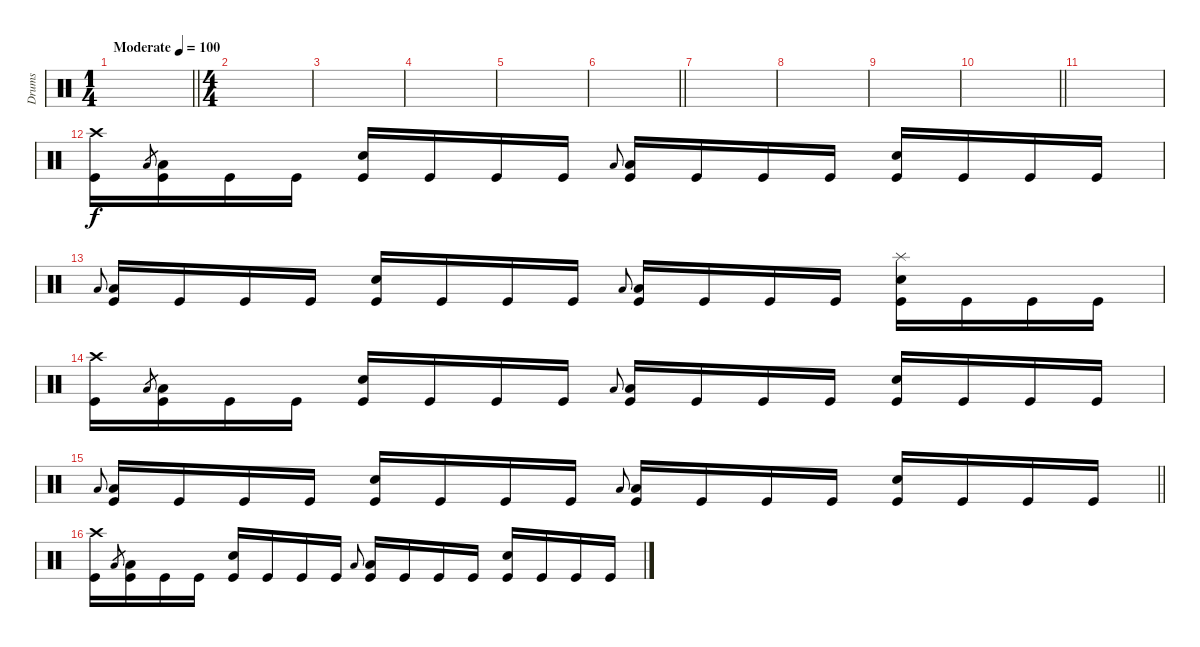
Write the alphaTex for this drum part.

\track ("Drums" "Drums") {instrument percussion}
\staff
\articulation defaults
\ts (1 4)
\tempo (100 "Moderate")
\clef neutral
\barLineRight lightlight
\ks c
|
\ts (4 4)
|
|
|
|
\barLineRight lightlight
|
|
|
|
\barLineRight lightlight
|
|
("Crash high (hit)" "Kick (hit)").16 "Low Floor Tom (hit)".8{gr} ("Low Floor Tom (hit)" "Kick (hit)").16 "Kick (hit)".16 "Kick (hit)".16 ("Electric Snare (hit)" "Kick (hit)").16 "Kick (hit)".16 "Kick (hit)".16 "Kick (hit)".16 "Low Floor Tom (hit)".8{gr onbeat} ("Low Floor Tom (hit)" "Kick (hit)").16 "Kick (hit)".16 "Kick (hit)".16 "Kick (hit)".16 ("Electric Snare (hit)" "Kick (hit)").16 "Kick (hit)".16 "Kick (hit)".16 "Kick (hit)".16 |
"Low Floor Tom (hit)".8{gr onbeat} ("Low Floor Tom (hit)" "Kick (hit)").16 "Kick (hit)".16 "Kick (hit)".16 "Kick (hit)".16 ("Electric Snare (hit)" "Kick (hit)").16 "Kick (hit)".16 "Kick (hit)".16 "Kick (hit)".16 "Low Floor Tom (hit)".8{gr onbeat} ("Low Floor Tom (hit)" "Kick (hit)").16 "Kick (hit)".16 "Kick (hit)".16 "Kick (hit)".16 ("Splash (hit)" "Electric Snare (hit)" "Kick (hit)").16 "Kick (hit)".16 "Kick (hit)".16 "Kick (hit)".16 |
("Crash high (hit)" "Kick (hit)").16 "Low Floor Tom (hit)".8{gr} ("Low Floor Tom (hit)" "Kick (hit)").16 "Kick (hit)".16 "Kick (hit)".16 ("Electric Snare (hit)" "Kick (hit)").16 "Kick (hit)".16 "Kick (hit)".16 "Kick (hit)".16 "Low Floor Tom (hit)".8{gr onbeat} ("Low Floor Tom (hit)" "Kick (hit)").16 "Kick (hit)".16 "Kick (hit)".16 "Kick (hit)".16 ("Electric Snare (hit)" "Kick (hit)").16 "Kick (hit)".16 "Kick (hit)".16 "Kick (hit)".16 |
\barLineRight lightlight "Low Floor Tom (hit)".8{gr onbeat}
("Low Floor Tom (hit)" "Kick (hit)").16 "Kick (hit)".16 "Kick (hit)".16 "Kick (hit)".16 ("Electric Snare (hit)" "Kick (hit)").16 "Kick (hit)".16 "Kick (hit)".16 "Kick (hit)".16 "Low Floor Tom (hit)".8{gr onbeat} ("Low Floor Tom (hit)" "Kick (hit)").16 "Kick (hit)".16 "Kick (hit)".16 "Kick (hit)".16 ("Electric Snare (hit)" "Kick (hit)").16 "Kick (hit)".16 "Kick (hit)".16 "Kick (hit)".16 |
("Crash high (hit)" "Kick (hit)").16 "Low Floor Tom (hit)".8{gr} ("Low Floor Tom (hit)" "Kick (hit)").16 "Kick (hit)".16 "Kick (hit)".16 ("Electric Snare (hit)" "Kick (hit)").16 "Kick (hit)".16 "Kick (hit)".16 "Kick (hit)".16 "Low Floor Tom (hit)".8{gr onbeat} ("Low Floor Tom (hit)" "Kick (hit)").16 "Kick (hit)".16 "Kick (hit)".16 "Kick (hit)".16 ("Electric Snare (hit)" "Kick (hit)").16 "Kick (hit)".16 "Kick (hit)".16 "Kick (hit)".16
